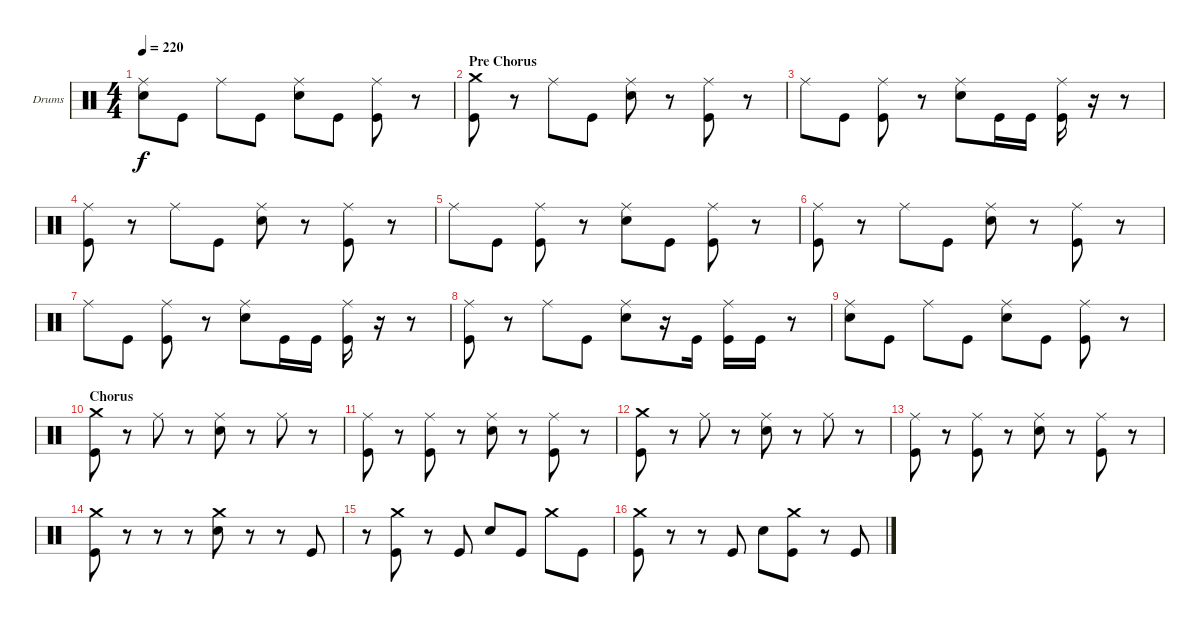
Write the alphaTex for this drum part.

\bracketExtendMode groupsimilarinstruments
\firstSystemTrackNameOrientation horizontal
\otherSystemsTrackNameOrientation horizontal
\track ("Drumkit" "Drums") {instrument percussion}
\staff {score}
\articulation defaults
\ts (4 4)
\tempo 220
\clef neutral
\ks c
("Ride (middle)" "Snare (hit) 2").8{dy f} "Kick (hit)".8 "Ride (middle)".8 "Kick (hit)".8 ("Ride (middle)" "Snare (hit) 2").8 "Kick (hit)".8 ("Ride (middle)" "Kick (hit)").8 r.8 |
\section ("" "Pre Chorus")
("Crash medium (hit)" "Kick (hit)").8 r.8 "Ride (middle)".8 "Kick (hit)".8 ("Ride (middle)" "Snare (hit) 2").8 r.8 ("Ride (middle)" "Kick (hit)").8 r.8 |
"Ride (middle)".8 "Kick (hit)".8 ("Ride (middle)" "Kick (hit)").8 r.8 ("Ride (middle)" "Snare (hit) 2").8 "Kick (hit)".16 "Kick (hit)".16 ("Ride (middle)" "Kick (hit)").16 r.16 r.8 |
("Ride (middle)" "Kick (hit)").8 r.8 "Ride (middle)".8 "Kick (hit)".8 ("Ride (middle)" "Snare (hit) 2").8 r.8 ("Ride (middle)" "Kick (hit)").8 r.8 |
"Ride (middle)".8 "Kick (hit)".8 ("Ride (middle)" "Kick (hit)").8 r.8 ("Ride (middle)" "Snare (hit) 2").8 "Kick (hit)".8 ("Ride (middle)" "Kick (hit)").8 r.8 |
("Ride (middle)" "Kick (hit)").8 r.8 "Ride (middle)".8 "Kick (hit)".8 ("Ride (middle)" "Snare (hit) 2").8 r.8 ("Ride (middle)" "Kick (hit)").8 r.8 |
"Ride (middle)".8 "Kick (hit)".8 ("Ride (middle)" "Kick (hit)").8 r.8 ("Ride (middle)" "Snare (hit) 2").8 "Kick (hit)".16 "Kick (hit)".16 ("Ride (middle)" "Kick (hit)").16 r.16 r.8 |
("Ride (middle)" "Kick (hit)").8 r.8 "Ride (middle)".8 "Kick (hit)".8 ("Ride (middle)" "Snare (hit) 2").8 r.16 "Kick (hit)".16 ("Ride (middle)" "Kick (hit)").16 "Kick (hit)".16 r.8 |
("Ride (middle)" "Snare (hit) 2").8 "Kick (hit)".8 "Ride (middle)".8 "Kick (hit)".8 ("Ride (middle)" "Snare (hit) 2").8 "Kick (hit)".8 ("Ride (middle)" "Kick (hit)").8 r.8 |
\section ("" "Chorus")
("Crash medium (hit)" "Kick (hit)").8 r.8 "Ride (middle)".8 r.8 ("Ride (middle)" "Snare (hit) 2").8 r.8 "Ride (middle)".8 r.8 |
("Ride (middle)" "Kick (hit)").8 r.8 ("Ride (middle)" "Kick (hit)").8 r.8 ("Ride (middle)" "Snare (hit) 2").8 r.8 ("Ride (middle)" "Kick (hit)").8 r.8 |
("Crash medium (hit)" "Kick (hit)").8 r.8 "Ride (middle)".8 r.8 ("Ride (middle)" "Snare (hit) 2").8 r.8 "Ride (middle)".8 r.8 |
("Ride (middle)" "Kick (hit)").8 r.8 ("Ride (middle)" "Kick (hit)").8 r.8 ("Ride (middle)" "Snare (hit) 2").8 r.8 ("Ride (middle)" "Kick (hit)").8 r.8 |
("Crash medium (hit)" "Kick (hit)").8 r.8 r.8 r.8 ("Crash medium (hit)" "Snare (hit) 2").8 r.8 r.8 "Kick (hit)".8 |
r.8 ("Crash medium (hit)" "Kick (hit)").8 r.8 "Kick (hit)".8 "Snare (hit) 2".8 "Kick (hit)".8 "Crash medium (hit)".8 "Kick (hit)".8 |
("Crash medium (hit)" "Kick (hit)").8 r.8 r.8 "Kick (hit)".8 "Snare (hit) 2".8 ("Crash medium (hit)" "Kick (hit)").8 r.8 "Kick (hit)".8
